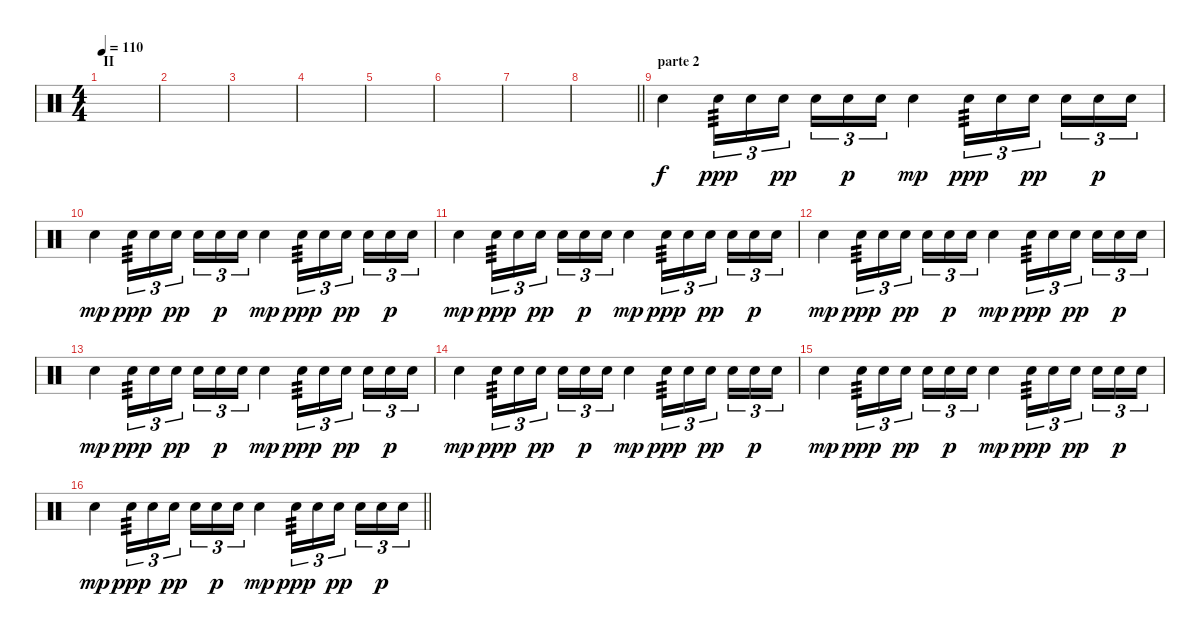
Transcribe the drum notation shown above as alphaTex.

\track "" {instrument percussion}
\staff {score}
\articulation defaults
\ts (4 4)
\section ("" "II")
\tempo 110
\clef neutral
\ks c
|
|
|
|
|
|
|
\barLineRight lightlight
|
\section ("" "parte 2")
"Electric Snare (hit)".4 "Electric Snare (hit)".16{tu (3 2) tp 3 dy ppp} "Electric Snare (hit)".16{tu (3 2)} "Electric Snare (hit)".16{tu (3 2) dy pp beam splitsecondary} "Electric Snare (hit)".16{tu (3 2)} "Electric Snare (hit)".16{tu (3 2) dy p} "Electric Snare (hit)".16{tu (3 2)} "Electric Snare (hit)".4{dy mp} "Electric Snare (hit)".16{tu (3 2) tp 3 dy ppp} "Electric Snare (hit)".16{tu (3 2)} "Electric Snare (hit)".16{tu (3 2) dy pp beam splitsecondary} "Electric Snare (hit)".16{tu (3 2)} "Electric Snare (hit)".16{tu (3 2) dy p} "Electric Snare (hit)".16{tu (3 2)} |
"Electric Snare (hit)".4{dy mp} "Electric Snare (hit)".16{tu (3 2) tp 3 dy ppp} "Electric Snare (hit)".16{tu (3 2)} "Electric Snare (hit)".16{tu (3 2) dy pp beam splitsecondary} "Electric Snare (hit)".16{tu (3 2)} "Electric Snare (hit)".16{tu (3 2) dy p} "Electric Snare (hit)".16{tu (3 2)} "Electric Snare (hit)".4{dy mp} "Electric Snare (hit)".16{tu (3 2) tp 3 dy ppp} "Electric Snare (hit)".16{tu (3 2)} "Electric Snare (hit)".16{tu (3 2) dy pp beam splitsecondary} "Electric Snare (hit)".16{tu (3 2)} "Electric Snare (hit)".16{tu (3 2) dy p} "Electric Snare (hit)".16{tu (3 2)} |
"Electric Snare (hit)".4{dy mp} "Electric Snare (hit)".16{tu (3 2) tp 3 dy ppp} "Electric Snare (hit)".16{tu (3 2)} "Electric Snare (hit)".16{tu (3 2) dy pp beam splitsecondary} "Electric Snare (hit)".16{tu (3 2)} "Electric Snare (hit)".16{tu (3 2) dy p} "Electric Snare (hit)".16{tu (3 2)} "Electric Snare (hit)".4{dy mp} "Electric Snare (hit)".16{tu (3 2) tp 3 dy ppp} "Electric Snare (hit)".16{tu (3 2)} "Electric Snare (hit)".16{tu (3 2) dy pp beam splitsecondary} "Electric Snare (hit)".16{tu (3 2)} "Electric Snare (hit)".16{tu (3 2) dy p} "Electric Snare (hit)".16{tu (3 2)} |
"Electric Snare (hit)".4{dy mp} "Electric Snare (hit)".16{tu (3 2) tp 3 dy ppp} "Electric Snare (hit)".16{tu (3 2)} "Electric Snare (hit)".16{tu (3 2) dy pp beam splitsecondary} "Electric Snare (hit)".16{tu (3 2)} "Electric Snare (hit)".16{tu (3 2) dy p} "Electric Snare (hit)".16{tu (3 2)} "Electric Snare (hit)".4{dy mp} "Electric Snare (hit)".16{tu (3 2) tp 3 dy ppp} "Electric Snare (hit)".16{tu (3 2)} "Electric Snare (hit)".16{tu (3 2) dy pp beam splitsecondary} "Electric Snare (hit)".16{tu (3 2)} "Electric Snare (hit)".16{tu (3 2) dy p} "Electric Snare (hit)".16{tu (3 2)} |
"Electric Snare (hit)".4{dy mp} "Electric Snare (hit)".16{tu (3 2) tp 3 dy ppp} "Electric Snare (hit)".16{tu (3 2)} "Electric Snare (hit)".16{tu (3 2) dy pp beam splitsecondary} "Electric Snare (hit)".16{tu (3 2)} "Electric Snare (hit)".16{tu (3 2) dy p} "Electric Snare (hit)".16{tu (3 2)} "Electric Snare (hit)".4{dy mp} "Electric Snare (hit)".16{tu (3 2) tp 3 dy ppp} "Electric Snare (hit)".16{tu (3 2)} "Electric Snare (hit)".16{tu (3 2) dy pp beam splitsecondary} "Electric Snare (hit)".16{tu (3 2)} "Electric Snare (hit)".16{tu (3 2) dy p} "Electric Snare (hit)".16{tu (3 2)} |
"Electric Snare (hit)".4{dy mp} "Electric Snare (hit)".16{tu (3 2) tp 3 dy ppp} "Electric Snare (hit)".16{tu (3 2)} "Electric Snare (hit)".16{tu (3 2) dy pp beam splitsecondary} "Electric Snare (hit)".16{tu (3 2)} "Electric Snare (hit)".16{tu (3 2) dy p} "Electric Snare (hit)".16{tu (3 2)} "Electric Snare (hit)".4{dy mp} "Electric Snare (hit)".16{tu (3 2) tp 3 dy ppp} "Electric Snare (hit)".16{tu (3 2)} "Electric Snare (hit)".16{tu (3 2) dy pp beam splitsecondary} "Electric Snare (hit)".16{tu (3 2)} "Electric Snare (hit)".16{tu (3 2) dy p} "Electric Snare (hit)".16{tu (3 2)} |
"Electric Snare (hit)".4{dy mp} "Electric Snare (hit)".16{tu (3 2) tp 3 dy ppp} "Electric Snare (hit)".16{tu (3 2)} "Electric Snare (hit)".16{tu (3 2) dy pp beam splitsecondary} "Electric Snare (hit)".16{tu (3 2)} "Electric Snare (hit)".16{tu (3 2) dy p} "Electric Snare (hit)".16{tu (3 2)} "Electric Snare (hit)".4{dy mp} "Electric Snare (hit)".16{tu (3 2) tp 3 dy ppp} "Electric Snare (hit)".16{tu (3 2)} "Electric Snare (hit)".16{tu (3 2) dy pp beam splitsecondary} "Electric Snare (hit)".16{tu (3 2)} "Electric Snare (hit)".16{tu (3 2) dy p} "Electric Snare (hit)".16{tu (3 2)} |
\barLineRight lightlight "Electric Snare (hit)".4{dy mp} "Electric Snare (hit)".16{tu (3 2) tp 3 dy ppp} "Electric Snare (hit)".16{tu (3 2)} "Electric Snare (hit)".16{tu (3 2) dy pp beam splitsecondary} "Electric Snare (hit)".16{tu (3 2)} "Electric Snare (hit)".16{tu (3 2) dy p} "Electric Snare (hit)".16{tu (3 2)} "Electric Snare (hit)".4{dy mp} "Electric Snare (hit)".16{tu (3 2) tp 3 dy ppp} "Electric Snare (hit)".16{tu (3 2)} "Electric Snare (hit)".16{tu (3 2) dy pp beam splitsecondary} "Electric Snare (hit)".16{tu (3 2)} "Electric Snare (hit)".16{tu (3 2) dy p} "Electric Snare (hit)".16{tu (3 2)}
